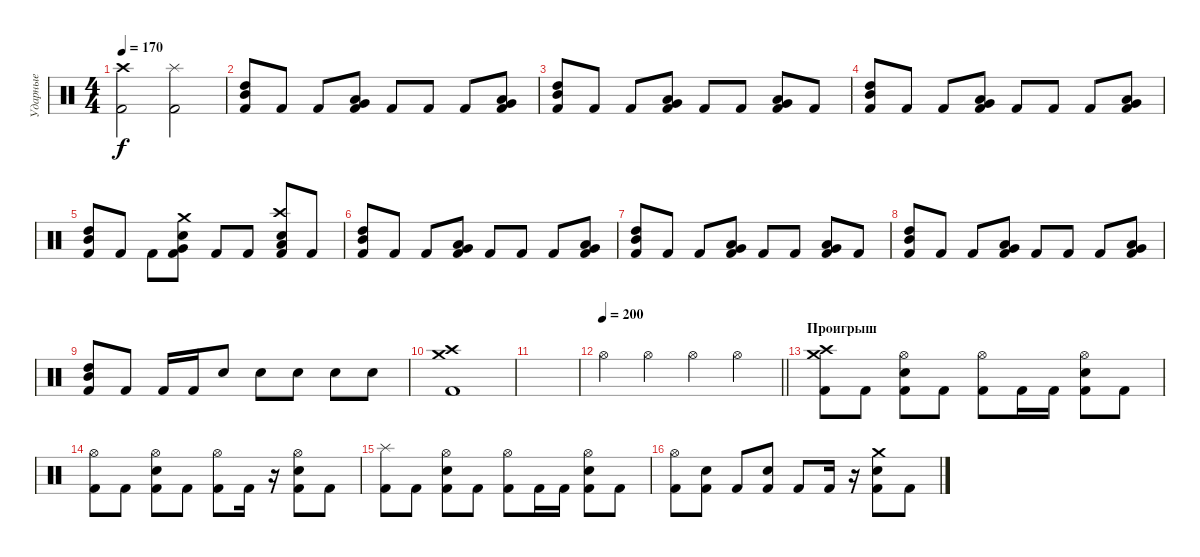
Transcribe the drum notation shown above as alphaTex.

\track ("Ударные" "Ударные") {instrument percussion}
\staff {score}
\articulation defaults
\ts (4 4)
\tempo 170
\clef neutral
\ks c
("Kick (hit) 2" "Crash high (hit)").2{dy f} ("Kick (hit) 2" "Splash (hit)").2 |
("Kick (hit) 2" "Mid Tom (hit)" "High Tom (hit)").8 "Kick (hit) 2".8 "Kick (hit) 2".8 ("Kick (hit) 2" "Very Low Tom (hit)" "Low Tom (hit)").8 "Kick (hit) 2".8 "Kick (hit) 2".8 "Kick (hit) 2".8 ("Kick (hit) 2" "Very Low Tom (hit)" "Low Tom (hit)").8 |
("Kick (hit) 2" "Mid Tom (hit)" "High Tom (hit)").8 "Kick (hit) 2".8 "Kick (hit) 2".8 ("Kick (hit) 2" "Very Low Tom (hit)" "Low Tom (hit)").8 "Kick (hit) 2".8 "Kick (hit) 2".8 ("Kick (hit) 2" "Low Floor Tom (hit)" "Very Low Tom (hit)").8 "Kick (hit) 2".8 |
("Kick (hit) 2" "Mid Tom (hit)" "High Tom (hit)").8 "Kick (hit) 2".8 "Kick (hit) 2".8 ("Kick (hit) 2" "Very Low Tom (hit)" "Low Tom (hit)").8 "Kick (hit) 2".8 "Kick (hit) 2".8 "Kick (hit) 2".8 ("Kick (hit) 2" "Very Low Tom (hit)" "Low Tom (hit)").8 |
("Kick (hit) 2" "Mid Tom (hit)" "High Tom (hit)").8 "Kick (hit) 2".8 "Kick (hit) 2".8 ("Kick (hit) 2" "Very Low Tom (hit)" "Electric Snare (hit)" "Crash medium (hit)").8 "Kick (hit) 2".8 "Kick (hit) 2".8 ("Kick (hit) 2" "Low Floor Tom (hit)" "Electric Snare (hit)" "Crash high (hit)").8 "Kick (hit) 2".8 |
("Kick (hit) 2" "Mid Tom (hit)" "High Tom (hit)").8 "Kick (hit) 2".8 "Kick (hit) 2".8 ("Kick (hit) 2" "Very Low Tom (hit)" "Low Tom (hit)").8 "Kick (hit) 2".8 "Kick (hit) 2".8 "Kick (hit) 2".8 ("Kick (hit) 2" "Very Low Tom (hit)" "Low Tom (hit)").8 |
("Kick (hit) 2" "Mid Tom (hit)" "High Tom (hit)").8 "Kick (hit) 2".8 "Kick (hit) 2".8 ("Kick (hit) 2" "Very Low Tom (hit)" "Low Tom (hit)").8 "Kick (hit) 2".8 "Kick (hit) 2".8 ("Kick (hit) 2" "Low Floor Tom (hit)" "Very Low Tom (hit)").8 "Kick (hit) 2".8 |
("Kick (hit) 2" "Mid Tom (hit)" "High Tom (hit)").8 "Kick (hit) 2".8 "Kick (hit) 2".8 ("Kick (hit) 2" "Very Low Tom (hit)" "Low Tom (hit)").8 "Kick (hit) 2".8 "Kick (hit) 2".8 "Kick (hit) 2".8 ("Kick (hit) 2" "Very Low Tom (hit)" "Low Tom (hit)").8 |
("Kick (hit) 2" "Mid Tom (hit)" "High Tom (hit)").8 "Kick (hit) 2".8 "Kick (hit) 2".16 "Kick (hit) 2".16 "Electric Snare (hit)".8 "Electric Snare (hit)".8 "Electric Snare (hit)".8 "Electric Snare (hit)".8 "Electric Snare (hit)".8 |
("Kick (hit) 2" "Crash high (hit)" "Crash medium (hit)").1 |
|
\tempo 200
\barLineRight lightlight "Hi-Hat (open)".4 "Hi-Hat (open)".4 "Hi-Hat (open)".4 "Hi-Hat (open)".4
|
\section ("" "Проигрыш")
("Kick (hit) 2" "Crash high (hit)" "Crash medium (hit)").8 "Kick (hit) 2".8 ("Kick (hit) 2" "Electric Snare (hit)" "Hi-Hat (open)").8 "Kick (hit) 2".8 ("Kick (hit) 2" "Hi-Hat (open)").8 "Kick (hit) 2".16 "Kick (hit) 2".16 ("Kick (hit) 2" "Electric Snare (hit)" "Hi-Hat (open)").8 "Kick (hit) 2".8 |
("Kick (hit) 2" "Hi-Hat (open)").8 "Kick (hit) 2".8 ("Kick (hit) 2" "Electric Snare (hit)" "Hi-Hat (open)").8 "Kick (hit) 2".8 ("Kick (hit) 2" "Hi-Hat (open)").8 "Kick (hit) 2".16 r.16 ("Kick (hit) 2" "Electric Snare (hit)" "Hi-Hat (open)").8 "Kick (hit) 2".8 |
("Kick (hit) 2" "Splash (hit)").8 "Kick (hit) 2".8 ("Kick (hit) 2" "Electric Snare (hit)" "Hi-Hat (open)").8 "Kick (hit) 2".8 ("Kick (hit) 2" "Hi-Hat (open)").8 "Kick (hit) 2".16 "Kick (hit) 2".16 ("Kick (hit) 2" "Electric Snare (hit)" "Hi-Hat (open)").8 "Kick (hit) 2".8 |
("Kick (hit) 2" "Hi-Hat (open)").8 ("Kick (hit) 2" "Electric Snare (hit)").8 "Kick (hit) 2".8 ("Kick (hit) 2" "Electric Snare (hit)").8 "Kick (hit) 2".8 "Kick (hit) 2".16 r.16 ("Kick (hit) 2" "Electric Snare (hit)" "Crash medium (hit)").8 "Kick (hit) 2".8
